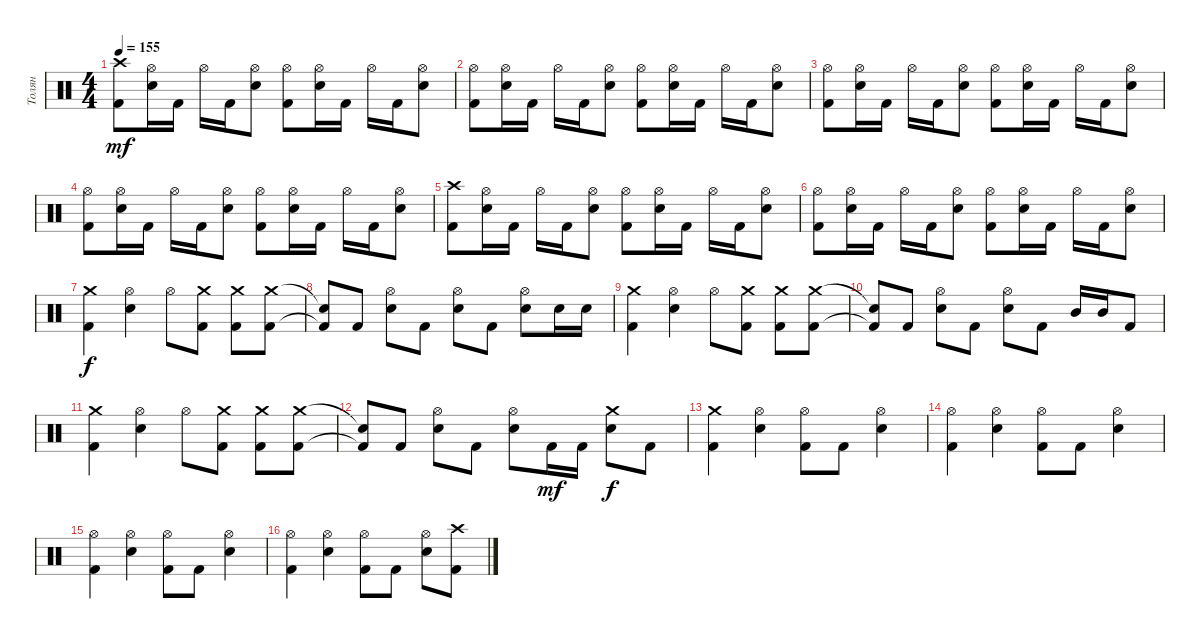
\track ("Толян" "Толян") {instrument percussion}
\staff {score}
\articulation defaults
\ts (4 4)
\tempo 155
\clef neutral
\ks c
("Kick (hit) 2" "Crash high (hit)").8{dy mf} ("Electric Snare (hit)" "Hi-Hat (open)").16 "Kick (hit) 2".16 "Hi-Hat (open)".16 "Kick (hit) 2".16 ("Electric Snare (hit)" "Hi-Hat (open)").8 ("Kick (hit) 2" "Hi-Hat (open)").8 ("Electric Snare (hit)" "Hi-Hat (open)").16 "Kick (hit) 2".16 "Hi-Hat (open)".16 "Kick (hit) 2".16 ("Electric Snare (hit)" "Hi-Hat (open)").8 |
("Kick (hit) 2" "Hi-Hat (open)").8 ("Electric Snare (hit)" "Hi-Hat (open)").16 "Kick (hit) 2".16 "Hi-Hat (open)".16 "Kick (hit) 2".16 ("Electric Snare (hit)" "Hi-Hat (open)").8 ("Kick (hit) 2" "Hi-Hat (open)").8 ("Electric Snare (hit)" "Hi-Hat (open)").16 "Kick (hit) 2".16 "Hi-Hat (open)".16 "Kick (hit) 2".16 ("Electric Snare (hit)" "Hi-Hat (open)").8 |
("Kick (hit) 2" "Hi-Hat (open)").8 ("Electric Snare (hit)" "Hi-Hat (open)").16 "Kick (hit) 2".16 "Hi-Hat (open)".16 "Kick (hit) 2".16 ("Electric Snare (hit)" "Hi-Hat (open)").8 ("Kick (hit) 2" "Hi-Hat (open)").8 ("Electric Snare (hit)" "Hi-Hat (open)").16 "Kick (hit) 2".16 "Hi-Hat (open)".16 "Kick (hit) 2".16 ("Electric Snare (hit)" "Hi-Hat (open)").8 |
("Kick (hit) 2" "Hi-Hat (open)").8 ("Electric Snare (hit)" "Hi-Hat (open)").16 "Kick (hit) 2".16 "Hi-Hat (open)".16 "Kick (hit) 2".16 ("Electric Snare (hit)" "Hi-Hat (open)").8 ("Kick (hit) 2" "Hi-Hat (open)").8 ("Electric Snare (hit)" "Hi-Hat (open)").16 "Kick (hit) 2".16 "Hi-Hat (open)".16 "Kick (hit) 2".16 ("Electric Snare (hit)" "Hi-Hat (open)").8 |
("Kick (hit) 2" "Crash high (hit)").8 ("Electric Snare (hit)" "Hi-Hat (open)").16 "Kick (hit) 2".16 "Hi-Hat (open)".16 "Kick (hit) 2".16 ("Electric Snare (hit)" "Hi-Hat (open)").8 ("Kick (hit) 2" "Hi-Hat (open)").8 ("Electric Snare (hit)" "Hi-Hat (open)").16 "Kick (hit) 2".16 "Hi-Hat (open)".16 "Kick (hit) 2".16 ("Electric Snare (hit)" "Hi-Hat (open)").8 |
("Kick (hit) 2" "Hi-Hat (open)").8 ("Electric Snare (hit)" "Hi-Hat (open)").16 "Kick (hit) 2".16 "Hi-Hat (open)".16 "Kick (hit) 2".16 ("Electric Snare (hit)" "Hi-Hat (open)").8 ("Kick (hit) 2" "Hi-Hat (open)").8 ("Electric Snare (hit)" "Hi-Hat (open)").16 "Kick (hit) 2".16 "Hi-Hat (open)".16 "Kick (hit) 2".16 ("Electric Snare (hit)" "Hi-Hat (open)").8 |
("Kick (hit) 2" "Crash medium (hit)").4{dy f} ("Electric Snare (hit)" "Hi-Hat (open)").4 "Hi-Hat (open)".8 ("Kick (hit) 2" "Crash medium (hit)").8 ("Kick (hit) 2" "Crash medium (hit)").8 ("Kick (hit) 2" "Crash medium (hit)").8 |
("Kick (hit) 2"{t} "Snare (hit)"{t}).8 "Kick (hit) 2".8 ("Electric Snare (hit)" "Hi-Hat (open)").8 "Kick (hit) 2".8 ("Electric Snare (hit)" "Hi-Hat (open)").8 "Kick (hit) 2".8 ("Electric Snare (hit)" "Hi-Hat (open)").8 "Electric Snare (hit)".16 "Electric Snare (hit)".16 |
("Kick (hit) 2" "Crash medium (hit)").4 ("Electric Snare (hit)" "Hi-Hat (open)").4 "Hi-Hat (open)".8 ("Kick (hit) 2" "Crash medium (hit)").8 ("Kick (hit) 2" "Crash medium (hit)").8 ("Kick (hit) 2" "Crash medium (hit)").8 |
("Kick (hit) 2"{t} "Snare (hit)"{t}).8 "Kick (hit) 2".8 ("Electric Snare (hit)" "Hi-Hat (open)").8 "Kick (hit) 2".8 ("Electric Snare (hit)" "Hi-Hat (open)").8 "Kick (hit) 2".8 "Mid Tom (hit)".16 "Mid Tom (hit)".16 "Kick (hit) 2".8 |
("Kick (hit) 2" "Crash medium (hit)").4 ("Electric Snare (hit)" "Hi-Hat (open)").4 "Hi-Hat (open)".8 ("Kick (hit) 2" "Crash medium (hit)").8 ("Kick (hit) 2" "Crash medium (hit)").8 ("Kick (hit) 2" "Crash medium (hit)").8 |
("Kick (hit) 2"{t} "Snare (hit)"{t}).8 "Kick (hit) 2".8 ("Electric Snare (hit)" "Hi-Hat (open)").8 "Kick (hit) 2".8 ("Electric Snare (hit)" "Hi-Hat (open)").8 "Kick (hit) 2".16{dy mf} "Kick (hit) 2".16 ("Electric Snare (hit)" "Crash medium (hit)").8{dy f} "Kick (hit) 2".8 |
("Kick (hit) 2" "Crash medium (hit)").4 ("Electric Snare (hit)" "Hi-Hat (open)").4 ("Kick (hit) 2" "Hi-Hat (open)").8 "Kick (hit) 2".8 ("Electric Snare (hit)" "Hi-Hat (open)").4 |
("Kick (hit) 2" "Hi-Hat (open)").4 ("Electric Snare (hit)" "Hi-Hat (open)").4 ("Kick (hit) 2" "Hi-Hat (open)").8 "Kick (hit) 2".8 ("Electric Snare (hit)" "Hi-Hat (open)").4 |
("Kick (hit) 2" "Hi-Hat (open)").4 ("Electric Snare (hit)" "Hi-Hat (open)").4 ("Kick (hit) 2" "Hi-Hat (open)").8 "Kick (hit) 2".8 ("Electric Snare (hit)" "Hi-Hat (open)").4 |
("Kick (hit) 2" "Hi-Hat (open)").4 ("Electric Snare (hit)" "Hi-Hat (open)").4 ("Kick (hit) 2" "Hi-Hat (open)").8 "Kick (hit) 2".8 ("Electric Snare (hit)" "Hi-Hat (open)").8 ("Kick (hit) 2" "Crash high (hit)").8
